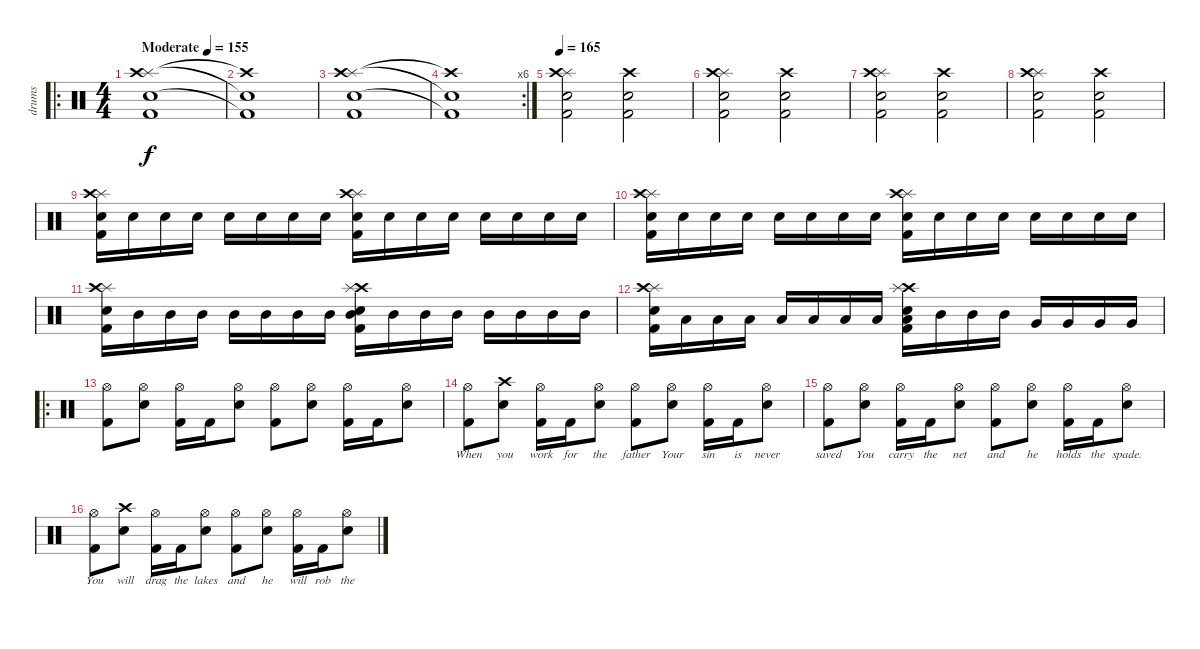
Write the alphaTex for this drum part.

\track ("drums" "drums") {instrument percussion}
\staff {score}
\articulation defaults
\ro
\ts (4 4)
\tempo (155 "Moderate")
\clef neutral
\ks c
("Splash (hit)" "Crash high (hit)" "Electric Snare (hit)" "Kick (hit) 2").1{dy f} |
("Crash high (hit)"{t} "Electric Snare (hit)"{t} "Kick (hit) 2"{t}).1 |
("Splash (hit)" "Crash high (hit)" "Electric Snare (hit)" "Kick (hit) 2").1 |
\rc 6
("Crash high (hit)"{t} "Electric Snare (hit)"{t} "Kick (hit) 2"{t}).1 |
\tempo 165
("Splash (hit)" "Crash high (hit)" "Electric Snare (hit)" "Kick (hit) 2").2 ("Crash high (hit)" "Electric Snare (hit)" "Kick (hit) 2").2 |
("Splash (hit)" "Crash high (hit)" "Electric Snare (hit)" "Kick (hit) 2").2 ("Crash high (hit)" "Electric Snare (hit)" "Kick (hit) 2").2 |
("Splash (hit)" "Crash high (hit)" "Electric Snare (hit)" "Kick (hit) 2").2 ("Crash high (hit)" "Electric Snare (hit)" "Kick (hit) 2").2 |
("Splash (hit)" "Crash high (hit)" "Electric Snare (hit)" "Kick (hit) 2").2 ("Crash high (hit)" "Electric Snare (hit)" "Kick (hit) 2").2 |
("Splash (hit)" "Crash high (hit)" "Electric Snare (hit)" "Kick (hit) 2").16 "Electric Snare (hit)".16 "Electric Snare (hit)".16 "Electric Snare (hit)".16 "Electric Snare (hit)".16 "Electric Snare (hit)".16 "Electric Snare (hit)".16 "Electric Snare (hit)".16 ("Splash (hit)" "Crash high (hit)" "Kick (hit) 2" "Electric Snare (hit)").16 "Electric Snare (hit)".16 "Electric Snare (hit)".16 "Electric Snare (hit)".16 "Electric Snare (hit)".16 "Electric Snare (hit)".16 "Electric Snare (hit)".16 "Electric Snare (hit)".16 |
("Splash (hit)" "Crash high (hit)" "Electric Snare (hit)" "Kick (hit) 2").16 "Electric Snare (hit)".16 "Electric Snare (hit)".16 "Electric Snare (hit)".16 "Electric Snare (hit)".16 "Electric Snare (hit)".16 "Electric Snare (hit)".16 "Electric Snare (hit)".16 ("Splash (hit)" "Crash high (hit)" "Kick (hit) 2" "Electric Snare (hit)").16 "Electric Snare (hit)".16 "Electric Snare (hit)".16 "Electric Snare (hit)".16 "Electric Snare (hit)".16 "Electric Snare (hit)".16 "Electric Snare (hit)".16 "Electric Snare (hit)".16 |
("Splash (hit)" "Crash high (hit)" "Electric Snare (hit)" "Kick (hit) 2").16 "Mid Tom (hit)".16 "Mid Tom (hit)".16 "Mid Tom (hit)".16 "Mid Tom (hit)".16 "Mid Tom (hit)".16 "Mid Tom (hit)".16 "Mid Tom (hit)".16 ("Crash high (hit)" "Electric Snare (hit)" "Splash (hit)" "Kick (hit) 2" "Mid Tom (hit)").16 "Mid Tom (hit)".16 "Mid Tom (hit)".16 "Mid Tom (hit)".16 "Mid Tom (hit)".16 "Mid Tom (hit)".16 "Mid Tom (hit)".16 "Mid Tom (hit)".16 |
("Splash (hit)" "Crash high (hit)" "Electric Snare (hit)" "Kick (hit) 2").16 "Low Tom (hit)".16 "Low Tom (hit)".16 "Low Tom (hit)".16 "Low Tom (hit)".16 "Low Tom (hit)".16 "Low Tom (hit)".16 "Low Tom (hit)".16 ("Crash high (hit)" "Electric Snare (hit)" "Splash (hit)" "Kick (hit) 2" "Low Tom (hit)").16 "Mid Tom (hit)".16 "Mid Tom (hit)".16 "Mid Tom (hit)".16 "Very Low Tom (hit)".16 "Very Low Tom (hit)".16 "Very Low Tom (hit)".16 "Very Low Tom (hit)".16 |
\ro
("Hi-Hat (open)" "Kick (hit) 2").8 ("Electric Snare (hit)" "Hi-Hat (open)").8 ("Hi-Hat (open)" "Kick (hit) 2").16 "Kick (hit) 2".16 ("Electric Snare (hit)" "Hi-Hat (open)").8 ("Hi-Hat (open)" "Kick (hit) 2").8 ("Electric Snare (hit)" "Hi-Hat (open)").8 ("Hi-Hat (open)" "Kick (hit) 2").16 "Kick (hit) 2".16 ("Electric Snare (hit)" "Hi-Hat (open)").8 |
("Hi-Hat (open)" "Kick (hit) 2").8{lyrics (0 "When") lyrics (1 "") lyrics (2 "") lyrics (3 "") lyrics (4 "")} ("Electric Snare (hit)" "Crash high (hit)").8{lyrics (0 "you") lyrics (1 "") lyrics (2 "") lyrics (3 "") lyrics (4 "")} ("Hi-Hat (open)" "Kick (hit) 2").16{lyrics (0 "work") lyrics (1 "") lyrics (2 "") lyrics (3 "") lyrics (4 "")} "Kick (hit) 2".16{lyrics (0 "for") lyrics (1 "") lyrics (2 "") lyrics (3 "") lyrics (4 "")} ("Electric Snare (hit)" "Hi-Hat (open)").8{lyrics (0 "the") lyrics (1 "") lyrics (2 "") lyrics (3 "") lyrics (4 "")} ("Hi-Hat (open)" "Kick (hit) 2").8{lyrics (0 "father") lyrics (1 "") lyrics (2 "") lyrics (3 "") lyrics (4 "")} ("Electric Snare (hit)" "Hi-Hat (open)").8{lyrics (0 "Your") lyrics (1 "") lyrics (2 "") lyrics (3 "") lyrics (4 "")} ("Hi-Hat (open)" "Kick (hit) 2").16{lyrics (0 "sin") lyrics (1 "") lyrics (2 "") lyrics (3 "") lyrics (4 "")} "Kick (hit) 2".16{lyrics (0 "is") lyrics (1 "") lyrics (2 "") lyrics (3 "") lyrics (4 "")} ("Electric Snare (hit)" "Hi-Hat (open)").8{lyrics (0 "never") lyrics (1 "") lyrics (2 "") lyrics (3 "") lyrics (4 "")} |
("Hi-Hat (open)" "Kick (hit) 2").8{lyrics (0 "saved") lyrics (1 "") lyrics (2 "") lyrics (3 "") lyrics (4 "")} ("Electric Snare (hit)" "Hi-Hat (open)").8{lyrics (0 "You") lyrics (1 "") lyrics (2 "") lyrics (3 "") lyrics (4 "")} ("Hi-Hat (open)" "Kick (hit) 2").16{lyrics (0 "carry") lyrics (1 "") lyrics (2 "") lyrics (3 "") lyrics (4 "")} "Kick (hit) 2".16{lyrics (0 "the") lyrics (1 "") lyrics (2 "") lyrics (3 "") lyrics (4 "")} ("Electric Snare (hit)" "Hi-Hat (open)").8{lyrics (0 "net") lyrics (1 "") lyrics (2 "") lyrics (3 "") lyrics (4 "")} ("Hi-Hat (open)" "Kick (hit) 2").8{lyrics (0 "and") lyrics (1 "") lyrics (2 "") lyrics (3 "") lyrics (4 "")} ("Electric Snare (hit)" "Hi-Hat (open)").8{lyrics (0 "he") lyrics (1 "") lyrics (2 "") lyrics (3 "") lyrics (4 "")} ("Hi-Hat (open)" "Kick (hit) 2").16{lyrics (0 "holds") lyrics (1 "") lyrics (2 "") lyrics (3 "") lyrics (4 "")} "Kick (hit) 2".16{lyrics (0 "the") lyrics (1 "") lyrics (2 "") lyrics (3 "") lyrics (4 "")} ("Electric Snare (hit)" "Hi-Hat (open)").8{lyrics (0 "spade.") lyrics (1 "") lyrics (2 "") lyrics (3 "") lyrics (4 "")} |
("Hi-Hat (open)" "Kick (hit) 2").8{lyrics (0 "You") lyrics (1 "") lyrics (2 "") lyrics (3 "") lyrics (4 "")} ("Electric Snare (hit)" "Crash high (hit)").8{lyrics (0 "will") lyrics (1 "") lyrics (2 "") lyrics (3 "") lyrics (4 "")} ("Hi-Hat (open)" "Kick (hit) 2").16{lyrics (0 "drag") lyrics (1 "") lyrics (2 "") lyrics (3 "") lyrics (4 "")} "Kick (hit) 2".16{lyrics (0 "the") lyrics (1 "") lyrics (2 "") lyrics (3 "") lyrics (4 "")} ("Electric Snare (hit)" "Hi-Hat (open)").8{lyrics (0 "lakes") lyrics (1 "") lyrics (2 "") lyrics (3 "") lyrics (4 "")} ("Hi-Hat (open)" "Kick (hit) 2").8{lyrics (0 "and") lyrics (1 "") lyrics (2 "") lyrics (3 "") lyrics (4 "")} ("Electric Snare (hit)" "Hi-Hat (open)").8{lyrics (0 "he") lyrics (1 "") lyrics (2 "") lyrics (3 "") lyrics (4 "")} ("Hi-Hat (open)" "Kick (hit) 2").16{lyrics (0 "will") lyrics (1 "") lyrics (2 "") lyrics (3 "") lyrics (4 "")} "Kick (hit) 2".16{lyrics (0 "rob") lyrics (1 "") lyrics (2 "") lyrics (3 "") lyrics (4 "")} ("Electric Snare (hit)" "Hi-Hat (open)").8{lyrics (0 "the") lyrics (1 "") lyrics (2 "") lyrics (3 "") lyrics (4 "")}
